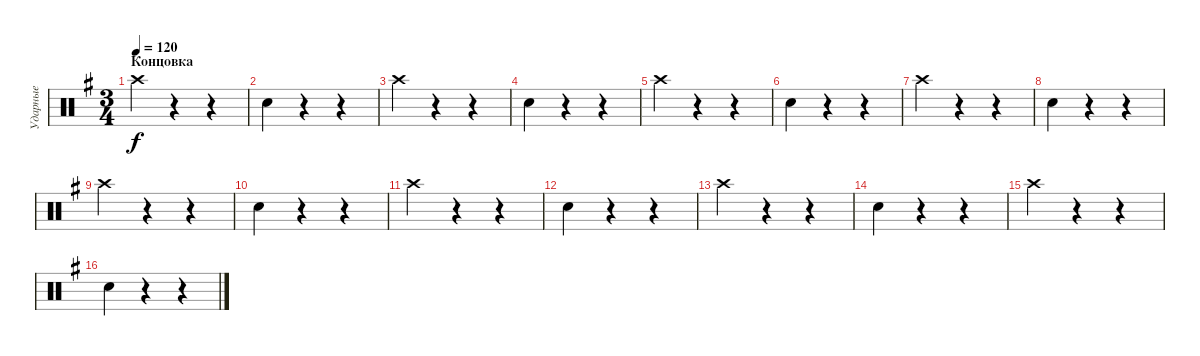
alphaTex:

\track ("Ударные" "Ударные") {instrument percussion}
\staff {score}
\articulation defaults
\ts (3 4)
\section ("" "Концовка")
\tempo 120
\clef neutral
\ks g "Crash high (hit)".4{dy f}
r.4 r.4 |
"Snare (hit) 2".4 r.4 r.4 |
"Crash high (hit)".4 r.4 r.4 |
"Snare (hit) 2".4 r.4 r.4 |
"Crash high (hit)".4 r.4 r.4 |
"Snare (hit) 2".4 r.4 r.4 |
"Crash high (hit)".4 r.4 r.4 |
"Snare (hit) 2".4 r.4 r.4 |
"Crash high (hit)".4 r.4 r.4 |
"Snare (hit) 2".4 r.4 r.4 |
"Crash high (hit)".4 r.4 r.4 |
"Snare (hit) 2".4 r.4 r.4 |
"Crash high (hit)".4 r.4 r.4 |
"Snare (hit) 2".4 r.4 r.4 |
"Crash high (hit)".4 r.4 r.4 |
"Snare (hit) 2".4 r.4 r.4
